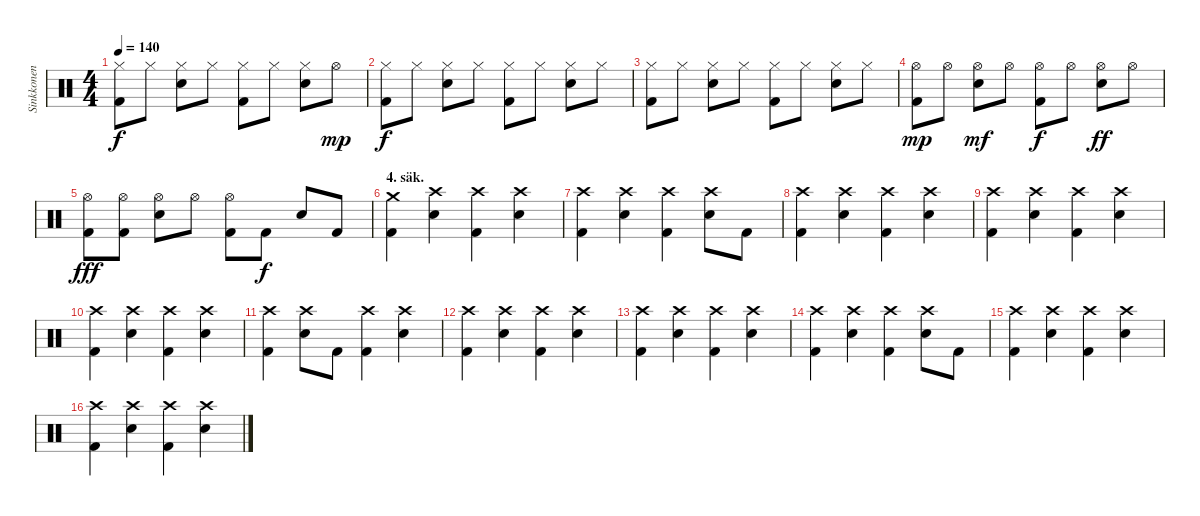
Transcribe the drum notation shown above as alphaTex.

\track ("Sinkkonen" "Sinkkonen") {instrument percussion}
\staff {score}
\articulation defaults
\ts (4 4)
\tempo 140
\clef neutral
\ks c
("Kick (hit) 2" "Hi-Hat (closed)").8{dy f} "Hi-Hat (closed)".8 ("Hi-Hat (closed)" "Snare (hit) 2").8 "Hi-Hat (closed)".8 ("Kick (hit) 2" "Hi-Hat (closed)").8 "Hi-Hat (closed)".8 ("Hi-Hat (closed)" "Snare (hit) 2").8 "Hi-Hat (open)".8{dy mp} |
("Kick (hit) 2" "Hi-Hat (closed)").8{dy f} "Hi-Hat (closed)".8 ("Hi-Hat (closed)" "Snare (hit) 2").8 "Hi-Hat (closed)".8 ("Kick (hit) 2" "Hi-Hat (closed)").8 "Hi-Hat (closed)".8 ("Hi-Hat (closed)" "Snare (hit) 2").8 "Hi-Hat (closed)".8 |
("Kick (hit) 2" "Hi-Hat (closed)").8 "Hi-Hat (closed)".8 ("Hi-Hat (closed)" "Snare (hit) 2").8 "Hi-Hat (closed)".8 ("Kick (hit) 2" "Hi-Hat (closed)").8 "Hi-Hat (closed)".8 ("Hi-Hat (closed)" "Snare (hit) 2").8 "Hi-Hat (closed)".8 |
("Kick (hit) 2" "Hi-Hat (open)").8{dy mp} "Hi-Hat (open)".8 ("Hi-Hat (open)" "Snare (hit) 2").8{dy mf} "Hi-Hat (open)".8 ("Kick (hit) 2" "Hi-Hat (open)").8{dy f} "Hi-Hat (open)".8 ("Hi-Hat (open)" "Snare (hit) 2").8{dy ff} "Hi-Hat (open)".8 |
("Kick (hit) 2" "Hi-Hat (open)").8{dy fff} ("Kick (hit) 2" "Hi-Hat (open)").8 ("Hi-Hat (open)" "Snare (hit) 2").8 "Hi-Hat (open)".8 ("Kick (hit) 2" "Hi-Hat (open)").8 "Kick (hit) 2".8{dy f} "Snare (hit) 2".8 "Kick (hit) 2".8 |
\section ("" "4. säk.")
("Kick (hit) 2" "Crash medium (hit)").4 ("Crash high (hit)" "Snare (hit) 2").4 ("Kick (hit) 2" "Crash high (hit)").4 ("Crash high (hit)" "Snare (hit) 2").4 |
("Kick (hit) 2" "Crash high (hit)").4 ("Crash high (hit)" "Snare (hit) 2").4 ("Kick (hit) 2" "Crash high (hit)").4 ("Crash high (hit)" "Snare (hit) 2").8 "Kick (hit) 2".8 |
("Kick (hit) 2" "Crash high (hit)").4 ("Crash high (hit)" "Snare (hit) 2").4 ("Kick (hit) 2" "Crash high (hit)").4 ("Crash high (hit)" "Snare (hit) 2").4 |
("Kick (hit) 2" "Crash high (hit)").4 ("Crash high (hit)" "Snare (hit) 2").4 ("Kick (hit) 2" "Crash high (hit)").4 ("Crash high (hit)" "Snare (hit) 2").4 |
("Kick (hit) 2" "Crash high (hit)").4 ("Crash high (hit)" "Snare (hit) 2").4 ("Kick (hit) 2" "Crash high (hit)").4 ("Crash high (hit)" "Snare (hit) 2").4 |
("Kick (hit) 2" "Crash high (hit)").4 ("Crash high (hit)" "Snare (hit) 2").8 "Kick (hit) 2".8 ("Kick (hit) 2" "Crash high (hit)").4 ("Crash high (hit)" "Snare (hit) 2").4 |
("Kick (hit) 2" "Crash high (hit)").4 ("Crash high (hit)" "Snare (hit) 2").4 ("Kick (hit) 2" "Crash high (hit)").4 ("Crash high (hit)" "Snare (hit) 2").4 |
("Kick (hit) 2" "Crash high (hit)").4 ("Crash high (hit)" "Snare (hit) 2").4 ("Kick (hit) 2" "Crash high (hit)").4 ("Crash high (hit)" "Snare (hit) 2").4 |
("Kick (hit) 2" "Crash high (hit)").4 ("Crash high (hit)" "Snare (hit) 2").4 ("Kick (hit) 2" "Crash high (hit)").4 ("Crash high (hit)" "Snare (hit) 2").8 "Kick (hit) 2".8 |
("Kick (hit) 2" "Crash high (hit)").4 ("Crash high (hit)" "Snare (hit) 2").4 ("Kick (hit) 2" "Crash high (hit)").4 ("Crash high (hit)" "Snare (hit) 2").4 |
("Kick (hit) 2" "Crash high (hit)").4 ("Crash high (hit)" "Snare (hit) 2").4 ("Kick (hit) 2" "Crash high (hit)").4 ("Crash high (hit)" "Snare (hit) 2").4
